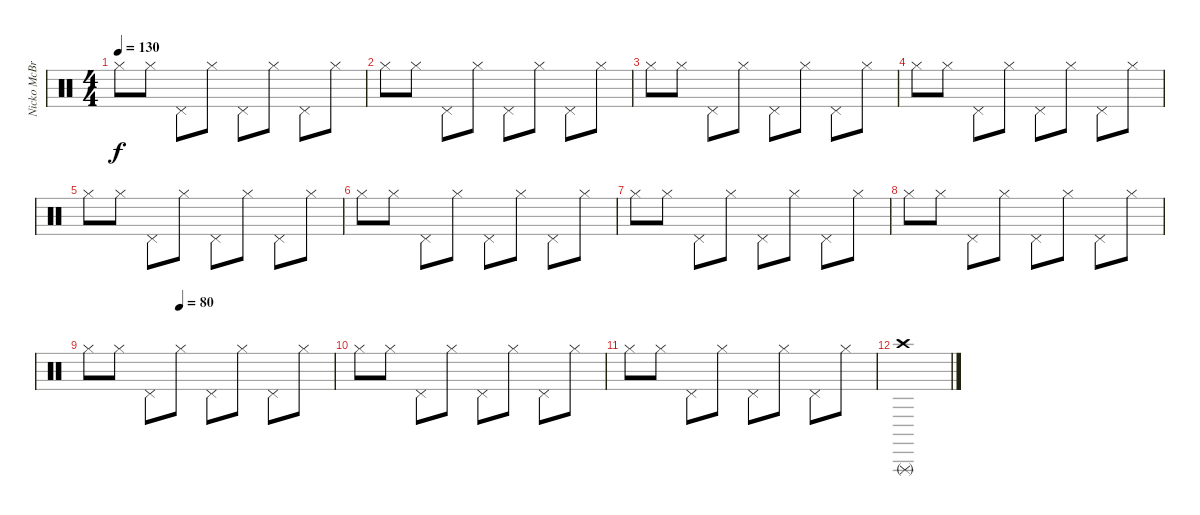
\track ("Nicko McBrain" "Nicko McBr") {instrument percussion}
\staff {score}
\articulation defaults
\ts (4 4)
\tempo 130
\clef neutral
\ks c "Hi-Hat (closed)".8{dy f} "Hi-Hat (closed)".8 "Pedal Hi-Hat (hit)".8 "Hi-Hat (closed)".8 "Pedal Hi-Hat (hit)".8 "Hi-Hat (closed)".8 "Pedal Hi-Hat (hit)".8 "Hi-Hat (closed)".8
|
"Hi-Hat (closed)".8 "Hi-Hat (closed)".8 "Pedal Hi-Hat (hit)".8 "Hi-Hat (closed)".8 "Pedal Hi-Hat (hit)".8 "Hi-Hat (closed)".8 "Pedal Hi-Hat (hit)".8 "Hi-Hat (closed)".8 |
"Hi-Hat (closed)".8 "Hi-Hat (closed)".8 "Pedal Hi-Hat (hit)".8 "Hi-Hat (closed)".8 "Pedal Hi-Hat (hit)".8 "Hi-Hat (closed)".8 "Pedal Hi-Hat (hit)".8 "Hi-Hat (closed)".8 |
"Hi-Hat (closed)".8 "Hi-Hat (closed)".8 "Pedal Hi-Hat (hit)".8 "Hi-Hat (closed)".8 "Pedal Hi-Hat (hit)".8 "Hi-Hat (closed)".8 "Pedal Hi-Hat (hit)".8 "Hi-Hat (closed)".8 |
"Hi-Hat (closed)".8 "Hi-Hat (closed)".8 "Pedal Hi-Hat (hit)".8 "Hi-Hat (closed)".8 "Pedal Hi-Hat (hit)".8 "Hi-Hat (closed)".8 "Pedal Hi-Hat (hit)".8 "Hi-Hat (closed)".8 |
"Hi-Hat (closed)".8 "Hi-Hat (closed)".8 "Pedal Hi-Hat (hit)".8 "Hi-Hat (closed)".8 "Pedal Hi-Hat (hit)".8 "Hi-Hat (closed)".8 "Pedal Hi-Hat (hit)".8 "Hi-Hat (closed)".8 |
"Hi-Hat (closed)".8 "Hi-Hat (closed)".8 "Pedal Hi-Hat (hit)".8 "Hi-Hat (closed)".8 "Pedal Hi-Hat (hit)".8 "Hi-Hat (closed)".8 "Pedal Hi-Hat (hit)".8 "Hi-Hat (closed)".8 |
"Hi-Hat (closed)".8 "Hi-Hat (closed)".8 "Pedal Hi-Hat (hit)".8 "Hi-Hat (closed)".8 "Pedal Hi-Hat (hit)".8 "Hi-Hat (closed)".8 "Pedal Hi-Hat (hit)".8 "Hi-Hat (closed)".8 |
\tempo (80 0.375)
"Hi-Hat (closed)".8 "Hi-Hat (closed)".8 "Pedal Hi-Hat (hit)".8 "Hi-Hat (closed)".8 "Pedal Hi-Hat (hit)".8 "Hi-Hat (closed)".8 "Pedal Hi-Hat (hit)".8 "Hi-Hat (closed)".8 |
"Hi-Hat (closed)".8 "Hi-Hat (closed)".8 "Pedal Hi-Hat (hit)".8 "Hi-Hat (closed)".8 "Pedal Hi-Hat (hit)".8 "Hi-Hat (closed)".8 "Pedal Hi-Hat (hit)".8 "Hi-Hat (closed)".8 |
"Hi-Hat (closed)".8 "Hi-Hat (closed)".8 "Pedal Hi-Hat (hit)".8 "Hi-Hat (closed)".8 "Pedal Hi-Hat (hit)".8 "Hi-Hat (closed)".8 "Pedal Hi-Hat (hit)".8 "Hi-Hat (closed)".8 |
("Triangle (rnute)" "Crash high (hit)").1
